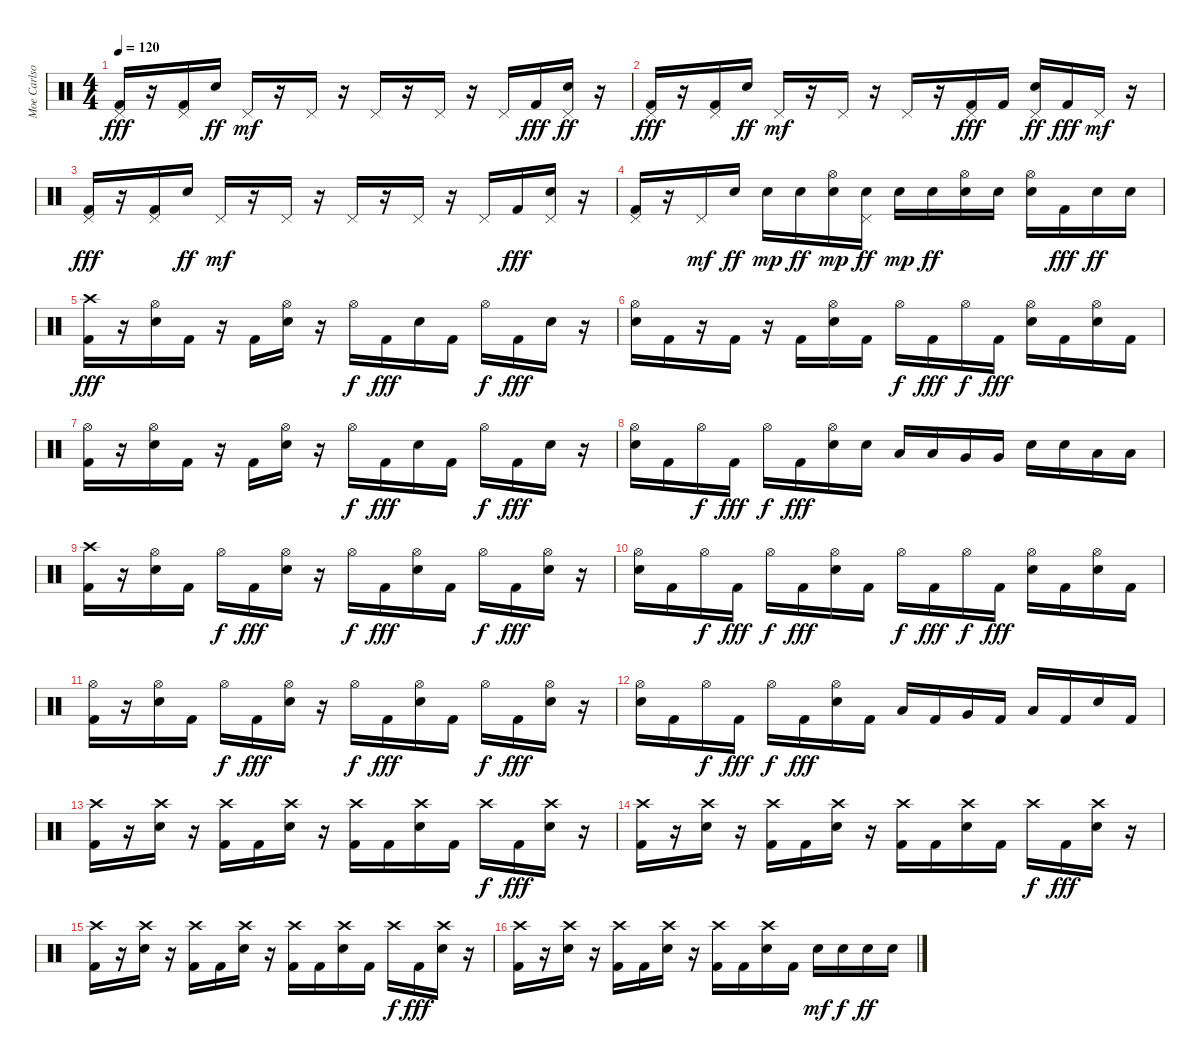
\track ("Moe Carlson" "Moe Carlso") {instrument percussion}
\staff {score}
\articulation defaults
\ts (4 4)
\tempo 120
\clef neutral
\ks c
("Pedal Hi-Hat (hit)" "Kick (hit) 2").16{dy fff} r.16 ("Pedal Hi-Hat (hit)" "Kick (hit) 2").16 "Electric Snare (hit)".16{dy ff} "Pedal Hi-Hat (hit)".16{dy mf} r.16 "Pedal Hi-Hat (hit)".16 r.16 "Pedal Hi-Hat (hit)".16 r.16 "Pedal Hi-Hat (hit)".16 r.16 "Pedal Hi-Hat (hit)".16 "Kick (hit) 2".16{dy fff} ("Pedal Hi-Hat (hit)" "Electric Snare (hit)").16{dy ff} r.16 |
("Pedal Hi-Hat (hit)" "Kick (hit) 2").16{dy fff} r.16 ("Pedal Hi-Hat (hit)" "Kick (hit) 2").16 "Electric Snare (hit)".16{dy ff} "Pedal Hi-Hat (hit)".16{dy mf} r.16 "Pedal Hi-Hat (hit)".16 r.16 "Pedal Hi-Hat (hit)".16 r.16 ("Pedal Hi-Hat (hit)" "Kick (hit) 2").16{dy fff} "Kick (hit) 2".16 ("Pedal Hi-Hat (hit)" "Electric Snare (hit)").16{dy ff} "Kick (hit) 2".16{dy fff} "Pedal Hi-Hat (hit)".16{dy mf} r.16 |
("Pedal Hi-Hat (hit)" "Kick (hit) 2").16{dy fff} r.16 ("Pedal Hi-Hat (hit)" "Kick (hit) 2").16 "Electric Snare (hit)".16{dy ff} "Pedal Hi-Hat (hit)".16{dy mf} r.16 "Pedal Hi-Hat (hit)".16 r.16 "Pedal Hi-Hat (hit)".16 r.16 "Pedal Hi-Hat (hit)".16 r.16 "Pedal Hi-Hat (hit)".16 "Kick (hit) 2".16{dy fff} ("Pedal Hi-Hat (hit)" "Electric Snare (hit)").16 r.16 |
("Pedal Hi-Hat (hit)" "Kick (hit) 2").16 r.16 "Pedal Hi-Hat (hit)".16{dy mf} "Electric Snare (hit)".16{dy ff} "Electric Snare (hit)".16{dy mp} "Electric Snare (hit)".16{dy ff} ("Hi-Hat (open)" "Electric Snare (hit)").16{dy mp} ("Pedal Hi-Hat (hit)" "Electric Snare (hit)").16{dy ff} "Electric Snare (hit)".16{dy mp} "Electric Snare (hit)".16{dy ff} ("Hi-Hat (open)" "Electric Snare (hit)").16 "Electric Snare (hit)".16 ("Hi-Hat (open)" "Electric Snare (hit)").16 "Kick (hit) 2".16{dy fff} "Electric Snare (hit)".16{dy ff} "Electric Snare (hit)".16 |
("Crash high (hit)" "Kick (hit) 2").16{dy fff} r.16 ("Hi-Hat (open)" "Electric Snare (hit)").16 "Kick (hit) 2".16 r.16 "Kick (hit) 2".16 ("Hi-Hat (open)" "Electric Snare (hit)").16 r.16 "Hi-Hat (open)".16{dy f} "Kick (hit) 2".16{dy fff} "Electric Snare (hit)".16 "Kick (hit) 2".16 "Hi-Hat (open)".16{dy f} "Kick (hit) 2".16{dy fff} "Electric Snare (hit)".16 r.16 |
("Hi-Hat (open)" "Electric Snare (hit)").16 "Kick (hit) 2".16 r.16 "Kick (hit) 2".16 r.16 "Kick (hit) 2".16 ("Hi-Hat (open)" "Electric Snare (hit)").16 "Kick (hit) 2".16 "Hi-Hat (open)".16{dy f} "Kick (hit) 2".16{dy fff} "Hi-Hat (open)".16{dy f} "Kick (hit) 2".16{dy fff} ("Hi-Hat (open)" "Electric Snare (hit)").16 "Kick (hit) 2".16 ("Hi-Hat (open)" "Electric Snare (hit)").16 "Kick (hit) 2".16 |
("Hi-Hat (open)" "Kick (hit) 2").16 r.16 ("Hi-Hat (open)" "Electric Snare (hit)").16 "Kick (hit) 2".16 r.16 "Kick (hit) 2".16 ("Hi-Hat (open)" "Electric Snare (hit)").16 r.16 "Hi-Hat (open)".16{dy f} "Kick (hit) 2".16{dy fff} "Electric Snare (hit)".16 "Kick (hit) 2".16 "Hi-Hat (open)".16{dy f} "Kick (hit) 2".16{dy fff} "Electric Snare (hit)".16 r.16 |
("Hi-Hat (open)" "Electric Snare (hit)").16 "Kick (hit) 2".16 "Hi-Hat (open)".16{dy f} "Kick (hit) 2".16{dy fff} "Hi-Hat (open)".16{dy f} "Kick (hit) 2".16{dy fff} ("Hi-Hat (open)" "Electric Snare (hit)").16 "Electric Snare (hit)".16 "Low Tom (hit)".16 "Low Tom (hit)".16 "Very Low Tom (hit)".16 "Very Low Tom (hit)".16 "Electric Snare (hit)".16 "Electric Snare (hit)".16 "Low Floor Tom (hit)".16 "Low Floor Tom (hit)".16 |
("Crash high (hit)" "Kick (hit) 2").16 r.16 ("Hi-Hat (open)" "Electric Snare (hit)").16 "Kick (hit) 2".16 "Hi-Hat (open)".16{dy f} "Kick (hit) 2".16{dy fff} ("Hi-Hat (open)" "Electric Snare (hit)").16 r.16 "Hi-Hat (open)".16{dy f} "Kick (hit) 2".16{dy fff} ("Hi-Hat (open)" "Electric Snare (hit)").16 "Kick (hit) 2".16 "Hi-Hat (open)".16{dy f} "Kick (hit) 2".16{dy fff} ("Hi-Hat (open)" "Electric Snare (hit)").16 r.16 |
("Hi-Hat (open)" "Electric Snare (hit)").16 "Kick (hit) 2".16 "Hi-Hat (open)".16{dy f} "Kick (hit) 2".16{dy fff} "Hi-Hat (open)".16{dy f} "Kick (hit) 2".16{dy fff} ("Hi-Hat (open)" "Electric Snare (hit)").16 "Kick (hit) 2".16 "Hi-Hat (open)".16{dy f} "Kick (hit) 2".16{dy fff} "Hi-Hat (open)".16{dy f} "Kick (hit) 2".16{dy fff} ("Hi-Hat (open)" "Electric Snare (hit)").16 "Kick (hit) 2".16 ("Hi-Hat (open)" "Electric Snare (hit)").16 "Kick (hit) 2".16 |
("Hi-Hat (open)" "Kick (hit) 2").16 r.16 ("Hi-Hat (open)" "Electric Snare (hit)").16 "Kick (hit) 2".16 "Hi-Hat (open)".16{dy f} "Kick (hit) 2".16{dy fff} ("Hi-Hat (open)" "Electric Snare (hit)").16 r.16 "Hi-Hat (open)".16{dy f} "Kick (hit) 2".16{dy fff} ("Hi-Hat (open)" "Electric Snare (hit)").16 "Kick (hit) 2".16 "Hi-Hat (open)".16{dy f} "Kick (hit) 2".16{dy fff} ("Hi-Hat (open)" "Electric Snare (hit)").16 r.16 |
("Hi-Hat (open)" "Electric Snare (hit)").16 "Kick (hit) 2".16 "Hi-Hat (open)".16{dy f} "Kick (hit) 2".16{dy fff} "Hi-Hat (open)".16{dy f} "Kick (hit) 2".16{dy fff} ("Hi-Hat (open)" "Electric Snare (hit)").16 "Kick (hit) 2".16 "Low Tom (hit)".16 "Kick (hit) 2".16 "Very Low Tom (hit)".16 "Kick (hit) 2".16 "Low Floor Tom (hit)".16 "Kick (hit) 2".16 "Electric Snare (hit)".16 "Kick (hit) 2".16 |
("Crash high (hit)" "Kick (hit) 2").16 r.16 ("Crash high (hit)" "Electric Snare (hit)").16 r.16 ("Crash high (hit)" "Kick (hit) 2").16 "Kick (hit) 2".16 ("Crash high (hit)" "Electric Snare (hit)").16 r.16 ("Crash high (hit)" "Kick (hit) 2").16 "Kick (hit) 2".16 ("Crash high (hit)" "Electric Snare (hit)").16 "Kick (hit) 2".16 "Crash high (hit)".16{dy f} "Kick (hit) 2".16{dy fff} ("Crash high (hit)" "Electric Snare (hit)").16 r.16 |
("Crash high (hit)" "Kick (hit) 2").16 r.16 ("Crash high (hit)" "Electric Snare (hit)").16 r.16 ("Crash high (hit)" "Kick (hit) 2").16 "Kick (hit) 2".16 ("Crash high (hit)" "Electric Snare (hit)").16 r.16 ("Crash high (hit)" "Kick (hit) 2").16 "Kick (hit) 2".16 ("Crash high (hit)" "Electric Snare (hit)").16 "Kick (hit) 2".16 "Crash high (hit)".16{dy f} "Kick (hit) 2".16{dy fff} ("Crash high (hit)" "Electric Snare (hit)").16 r.16 |
("Crash high (hit)" "Kick (hit) 2").16 r.16 ("Crash high (hit)" "Electric Snare (hit)").16 r.16 ("Crash high (hit)" "Kick (hit) 2").16 "Kick (hit) 2".16 ("Crash high (hit)" "Electric Snare (hit)").16 r.16 ("Crash high (hit)" "Kick (hit) 2").16 "Kick (hit) 2".16 ("Crash high (hit)" "Electric Snare (hit)").16 "Kick (hit) 2".16 "Crash high (hit)".16{dy f} "Kick (hit) 2".16{dy fff} ("Crash high (hit)" "Electric Snare (hit)").16 r.16 |
("Crash high (hit)" "Kick (hit) 2").16 r.16 ("Crash high (hit)" "Electric Snare (hit)").16 r.16 ("Crash high (hit)" "Kick (hit) 2").16 "Kick (hit) 2".16 ("Crash high (hit)" "Electric Snare (hit)").16 r.16 ("Crash high (hit)" "Kick (hit) 2").16 "Kick (hit) 2".16 ("Crash high (hit)" "Electric Snare (hit)").16 "Kick (hit) 2".16 "Electric Snare (hit)".16{dy mf} "Electric Snare (hit)".16{dy f} "Electric Snare (hit)".16{dy ff} "Electric Snare (hit)".16
